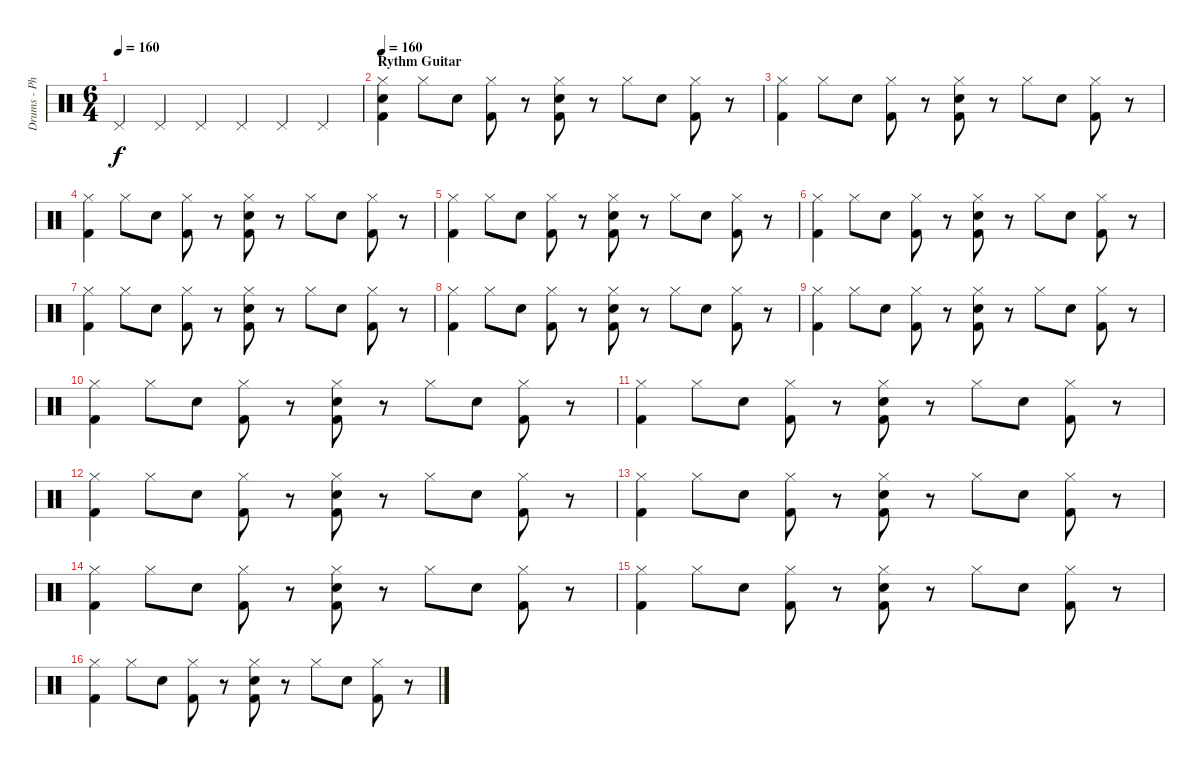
\track ("Drums - Phil Selway" "Drums - Ph") {instrument percussion}
\staff {score}
\articulation defaults
\ts (6 4)
\tempo 160
\clef neutral
\ks c "Pedal Hi-Hat (hit)".4{dy f} "Pedal Hi-Hat (hit)".4 "Pedal Hi-Hat (hit)".4 "Pedal Hi-Hat (hit)".4 "Pedal Hi-Hat (hit)".4 "Pedal Hi-Hat (hit)".4
|
\section ("" "Rythm Guitar")
\tempo 160
("Hi-Hat (closed)" "Snare (hit) 2" "Kick (hit) 2").4 "Hi-Hat (closed)".8 "Snare (hit) 2".8 ("Hi-Hat (closed)" "Kick (hit) 2").8 r.8 ("Hi-Hat (closed)" "Snare (hit) 2" "Kick (hit) 2").8 r.8 "Hi-Hat (closed)".8 "Snare (hit) 2".8 ("Hi-Hat (closed)" "Kick (hit) 2").8 r.8 |
("Hi-Hat (closed)" "Kick (hit) 2").4 "Hi-Hat (closed)".8 "Snare (hit) 2".8 ("Hi-Hat (closed)" "Kick (hit) 2").8 r.8 ("Hi-Hat (closed)" "Snare (hit) 2" "Kick (hit) 2").8 r.8 "Hi-Hat (closed)".8 "Snare (hit) 2".8 ("Hi-Hat (closed)" "Kick (hit) 2").8 r.8 |
("Hi-Hat (closed)" "Kick (hit) 2").4 "Hi-Hat (closed)".8 "Snare (hit) 2".8 ("Hi-Hat (closed)" "Kick (hit) 2").8 r.8 ("Hi-Hat (closed)" "Snare (hit) 2" "Kick (hit) 2").8 r.8 "Hi-Hat (closed)".8 "Snare (hit) 2".8 ("Hi-Hat (closed)" "Kick (hit) 2").8 r.8 |
("Hi-Hat (closed)" "Kick (hit) 2").4 "Hi-Hat (closed)".8 "Snare (hit) 2".8 ("Hi-Hat (closed)" "Kick (hit) 2").8 r.8 ("Hi-Hat (closed)" "Snare (hit) 2" "Kick (hit) 2").8 r.8 "Hi-Hat (closed)".8 "Snare (hit) 2".8 ("Hi-Hat (closed)" "Kick (hit) 2").8 r.8 |
("Hi-Hat (closed)" "Kick (hit) 2").4 "Hi-Hat (closed)".8 "Snare (hit) 2".8 ("Hi-Hat (closed)" "Kick (hit) 2").8 r.8 ("Hi-Hat (closed)" "Snare (hit) 2" "Kick (hit) 2").8 r.8 "Hi-Hat (closed)".8 "Snare (hit) 2".8 ("Hi-Hat (closed)" "Kick (hit) 2").8 r.8 |
("Hi-Hat (closed)" "Kick (hit) 2").4 "Hi-Hat (closed)".8 "Snare (hit) 2".8 ("Hi-Hat (closed)" "Kick (hit) 2").8 r.8 ("Hi-Hat (closed)" "Snare (hit) 2" "Kick (hit) 2").8 r.8 "Hi-Hat (closed)".8 "Snare (hit) 2".8 ("Hi-Hat (closed)" "Kick (hit) 2").8 r.8 |
("Hi-Hat (closed)" "Kick (hit) 2").4 "Hi-Hat (closed)".8 "Snare (hit) 2".8 ("Hi-Hat (closed)" "Kick (hit) 2").8 r.8 ("Hi-Hat (closed)" "Snare (hit) 2" "Kick (hit) 2").8 r.8 "Hi-Hat (closed)".8 "Snare (hit) 2".8 ("Hi-Hat (closed)" "Kick (hit) 2").8 r.8 |
("Hi-Hat (closed)" "Kick (hit) 2").4 "Hi-Hat (closed)".8 "Snare (hit) 2".8 ("Hi-Hat (closed)" "Kick (hit) 2").8 r.8 ("Hi-Hat (closed)" "Snare (hit) 2" "Kick (hit) 2").8 r.8 "Hi-Hat (closed)".8 "Snare (hit) 2".8 ("Hi-Hat (closed)" "Kick (hit) 2").8 r.8 |
("Hi-Hat (closed)" "Kick (hit) 2").4 "Hi-Hat (closed)".8 "Snare (hit) 2".8 ("Hi-Hat (closed)" "Kick (hit) 2").8 r.8 ("Hi-Hat (closed)" "Snare (hit) 2" "Kick (hit) 2").8 r.8 "Hi-Hat (closed)".8 "Snare (hit) 2".8 ("Hi-Hat (closed)" "Kick (hit) 2").8 r.8 |
("Hi-Hat (closed)" "Kick (hit) 2").4 "Hi-Hat (closed)".8 "Snare (hit) 2".8 ("Hi-Hat (closed)" "Kick (hit) 2").8 r.8 ("Hi-Hat (closed)" "Snare (hit) 2" "Kick (hit) 2").8 r.8 "Hi-Hat (closed)".8 "Snare (hit) 2".8 ("Hi-Hat (closed)" "Kick (hit) 2").8 r.8 |
("Hi-Hat (closed)" "Kick (hit) 2").4 "Hi-Hat (closed)".8 "Snare (hit) 2".8 ("Hi-Hat (closed)" "Kick (hit) 2").8 r.8 ("Hi-Hat (closed)" "Snare (hit) 2" "Kick (hit) 2").8 r.8 "Hi-Hat (closed)".8 "Snare (hit) 2".8 ("Hi-Hat (closed)" "Kick (hit) 2").8 r.8 |
("Hi-Hat (closed)" "Kick (hit) 2").4 "Hi-Hat (closed)".8 "Snare (hit) 2".8 ("Hi-Hat (closed)" "Kick (hit) 2").8 r.8 ("Hi-Hat (closed)" "Snare (hit) 2" "Kick (hit) 2").8 r.8 "Hi-Hat (closed)".8 "Snare (hit) 2".8 ("Hi-Hat (closed)" "Kick (hit) 2").8 r.8 |
("Hi-Hat (closed)" "Kick (hit) 2").4 "Hi-Hat (closed)".8 "Snare (hit) 2".8 ("Hi-Hat (closed)" "Kick (hit) 2").8 r.8 ("Hi-Hat (closed)" "Snare (hit) 2" "Kick (hit) 2").8 r.8 "Hi-Hat (closed)".8 "Snare (hit) 2".8 ("Hi-Hat (closed)" "Kick (hit) 2").8 r.8 |
("Hi-Hat (closed)" "Kick (hit) 2").4 "Hi-Hat (closed)".8 "Snare (hit) 2".8 ("Hi-Hat (closed)" "Kick (hit) 2").8 r.8 ("Hi-Hat (closed)" "Snare (hit) 2" "Kick (hit) 2").8 r.8 "Hi-Hat (closed)".8 "Snare (hit) 2".8 ("Hi-Hat (closed)" "Kick (hit) 2").8 r.8 |
("Hi-Hat (closed)" "Kick (hit) 2").4 "Hi-Hat (closed)".8 "Snare (hit) 2".8 ("Hi-Hat (closed)" "Kick (hit) 2").8 r.8 ("Hi-Hat (closed)" "Snare (hit) 2" "Kick (hit) 2").8 r.8 "Hi-Hat (closed)".8 "Snare (hit) 2".8 ("Hi-Hat (closed)" "Kick (hit) 2").8 r.8
